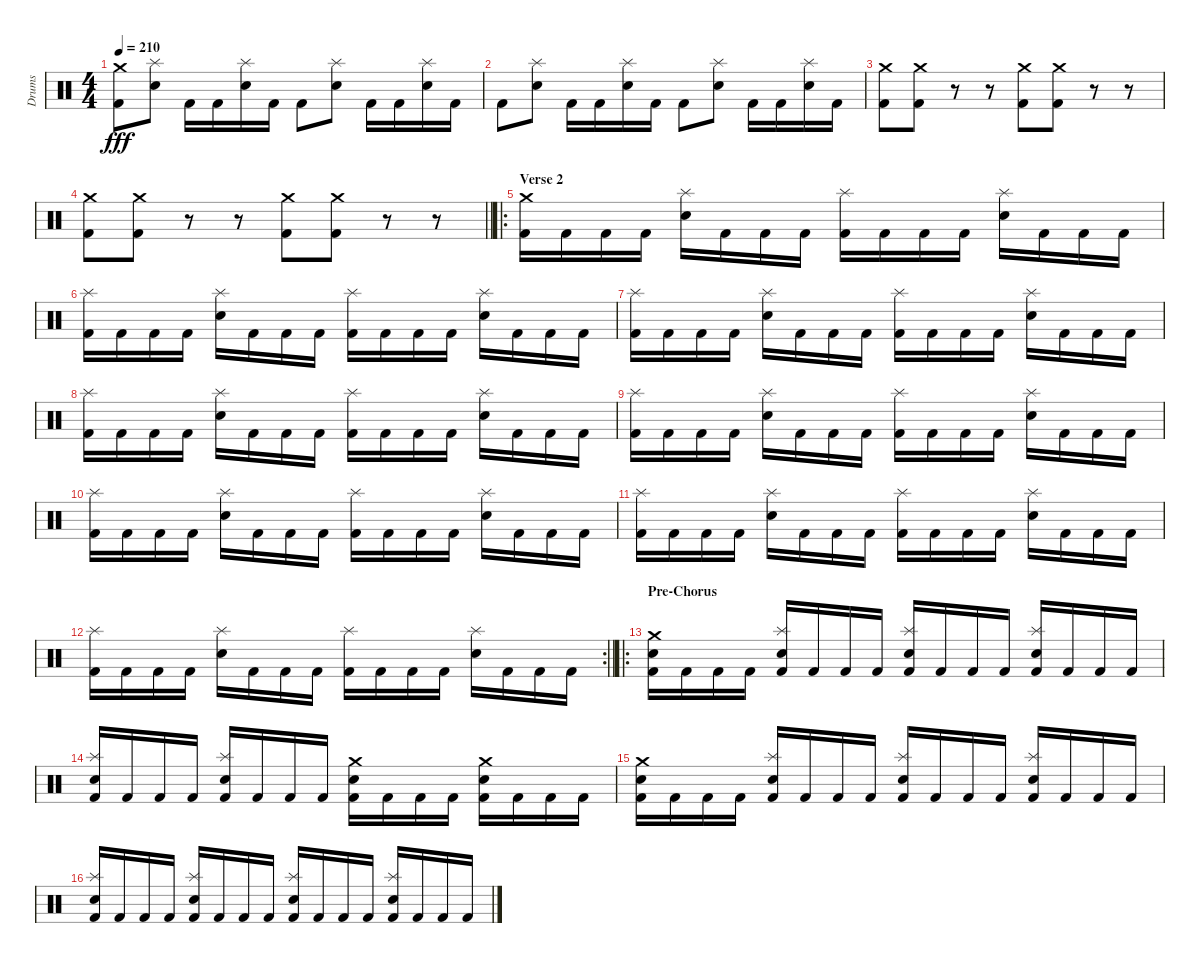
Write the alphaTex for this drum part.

\track ("Drums" "Drums") {instrument percussion}
\staff {score}
\articulation defaults
\ts (4 4)
\tempo 210
\clef neutral
\ks c
("Crash medium (hit)" "Kick (hit) 2").8{dy fff} ("Splash (hit)" "Electric Snare (hit)").8 "Kick (hit) 2".16 "Kick (hit) 2".16 ("Splash (hit)" "Electric Snare (hit)").16 "Kick (hit) 2".16 "Kick (hit) 2".8 ("Splash (hit)" "Electric Snare (hit)").8 "Kick (hit) 2".16 "Kick (hit) 2".16 ("Splash (hit)" "Electric Snare (hit)").16 "Kick (hit) 2".16 |
"Kick (hit) 2".8 ("Splash (hit)" "Electric Snare (hit)").8 "Kick (hit) 2".16 "Kick (hit) 2".16 ("Splash (hit)" "Electric Snare (hit)").16 "Kick (hit) 2".16 "Kick (hit) 2".8 ("Splash (hit)" "Electric Snare (hit)").8 "Kick (hit) 2".16 "Kick (hit) 2".16 ("Splash (hit)" "Electric Snare (hit)").16 "Kick (hit) 2".16 |
("Crash medium (hit)" "Kick (hit) 2").8 ("Crash medium (hit)" "Kick (hit) 2").8 r.8 r.8 ("Crash medium (hit)" "Kick (hit) 2").8 ("Crash medium (hit)" "Kick (hit) 2").8 r.8 r.8 |
\barLineRight lightlight
("Crash medium (hit)" "Kick (hit) 2").8 ("Crash medium (hit)" "Kick (hit) 2").8 r.8 r.8 ("Crash medium (hit)" "Kick (hit) 2").8 ("Crash medium (hit)" "Kick (hit) 2").8 r.8 r.8 |
\ro
\section ("" "Verse 2")
("Crash medium (hit)" "Kick (hit) 2").16 "Kick (hit) 2".16 "Kick (hit) 2".16 "Kick (hit) 2".16 ("Splash (hit)" "Electric Snare (hit)").16 "Kick (hit) 2".16 "Kick (hit) 2".16 "Kick (hit) 2".16 ("Splash (hit)" "Kick (hit) 2").16 "Kick (hit) 2".16 "Kick (hit) 2".16 "Kick (hit) 2".16 ("Splash (hit)" "Electric Snare (hit)").16 "Kick (hit) 2".16 "Kick (hit) 2".16 "Kick (hit) 2".16 |
("Splash (hit)" "Kick (hit) 2").16 "Kick (hit) 2".16 "Kick (hit) 2".16 "Kick (hit) 2".16 ("Splash (hit)" "Electric Snare (hit)").16 "Kick (hit) 2".16 "Kick (hit) 2".16 "Kick (hit) 2".16 ("Splash (hit)" "Kick (hit) 2").16 "Kick (hit) 2".16 "Kick (hit) 2".16 "Kick (hit) 2".16 ("Splash (hit)" "Electric Snare (hit)").16 "Kick (hit) 2".16 "Kick (hit) 2".16 "Kick (hit) 2".16 |
("Splash (hit)" "Kick (hit) 2").16 "Kick (hit) 2".16 "Kick (hit) 2".16 "Kick (hit) 2".16 ("Splash (hit)" "Electric Snare (hit)").16 "Kick (hit) 2".16 "Kick (hit) 2".16 "Kick (hit) 2".16 ("Splash (hit)" "Kick (hit) 2").16 "Kick (hit) 2".16 "Kick (hit) 2".16 "Kick (hit) 2".16 ("Splash (hit)" "Electric Snare (hit)").16 "Kick (hit) 2".16 "Kick (hit) 2".16 "Kick (hit) 2".16 |
("Splash (hit)" "Kick (hit) 2").16 "Kick (hit) 2".16 "Kick (hit) 2".16 "Kick (hit) 2".16 ("Splash (hit)" "Electric Snare (hit)").16 "Kick (hit) 2".16 "Kick (hit) 2".16 "Kick (hit) 2".16 ("Splash (hit)" "Kick (hit) 2").16 "Kick (hit) 2".16 "Kick (hit) 2".16 "Kick (hit) 2".16 ("Splash (hit)" "Electric Snare (hit)").16 "Kick (hit) 2".16 "Kick (hit) 2".16 "Kick (hit) 2".16 |
("Splash (hit)" "Kick (hit) 2").16 "Kick (hit) 2".16 "Kick (hit) 2".16 "Kick (hit) 2".16 ("Splash (hit)" "Electric Snare (hit)").16 "Kick (hit) 2".16 "Kick (hit) 2".16 "Kick (hit) 2".16 ("Splash (hit)" "Kick (hit) 2").16 "Kick (hit) 2".16 "Kick (hit) 2".16 "Kick (hit) 2".16 ("Splash (hit)" "Electric Snare (hit)").16 "Kick (hit) 2".16 "Kick (hit) 2".16 "Kick (hit) 2".16 |
("Splash (hit)" "Kick (hit) 2").16 "Kick (hit) 2".16 "Kick (hit) 2".16 "Kick (hit) 2".16 ("Splash (hit)" "Electric Snare (hit)").16 "Kick (hit) 2".16 "Kick (hit) 2".16 "Kick (hit) 2".16 ("Splash (hit)" "Kick (hit) 2").16 "Kick (hit) 2".16 "Kick (hit) 2".16 "Kick (hit) 2".16 ("Splash (hit)" "Electric Snare (hit)").16 "Kick (hit) 2".16 "Kick (hit) 2".16 "Kick (hit) 2".16 |
("Splash (hit)" "Kick (hit) 2").16 "Kick (hit) 2".16 "Kick (hit) 2".16 "Kick (hit) 2".16 ("Splash (hit)" "Electric Snare (hit)").16 "Kick (hit) 2".16 "Kick (hit) 2".16 "Kick (hit) 2".16 ("Splash (hit)" "Kick (hit) 2").16 "Kick (hit) 2".16 "Kick (hit) 2".16 "Kick (hit) 2".16 ("Splash (hit)" "Electric Snare (hit)").16 "Kick (hit) 2".16 "Kick (hit) 2".16 "Kick (hit) 2".16 |
\rc 2
\barLineRight lightlight
("Splash (hit)" "Kick (hit) 2").16 "Kick (hit) 2".16 "Kick (hit) 2".16 "Kick (hit) 2".16 ("Splash (hit)" "Electric Snare (hit)").16 "Kick (hit) 2".16 "Kick (hit) 2".16 "Kick (hit) 2".16 ("Splash (hit)" "Kick (hit) 2").16 "Kick (hit) 2".16 "Kick (hit) 2".16 "Kick (hit) 2".16 ("Splash (hit)" "Electric Snare (hit)").16 "Kick (hit) 2".16 "Kick (hit) 2".16 "Kick (hit) 2".16 |
\ro
\section ("" "Pre-Chorus")
("Crash medium (hit)" "Electric Snare (hit)" "Kick (hit) 2").16 "Kick (hit) 2".16 "Kick (hit) 2".16 "Kick (hit) 2".16 ("Splash (hit)" "Electric Snare (hit)" "Kick (hit) 2").16 "Kick (hit) 2".16 "Kick (hit) 2".16 "Kick (hit) 2".16 ("Splash (hit)" "Electric Snare (hit)" "Kick (hit) 2").16 "Kick (hit) 2".16 "Kick (hit) 2".16 "Kick (hit) 2".16 ("Splash (hit)" "Electric Snare (hit)" "Kick (hit) 2").16 "Kick (hit) 2".16 "Kick (hit) 2".16 "Kick (hit) 2".16 |
("Splash (hit)" "Electric Snare (hit)" "Kick (hit) 2").16 "Kick (hit) 2".16 "Kick (hit) 2".16 "Kick (hit) 2".16 ("Splash (hit)" "Electric Snare (hit)" "Kick (hit) 2").16 "Kick (hit) 2".16 "Kick (hit) 2".16 "Kick (hit) 2".16 ("Crash medium (hit)" "Electric Snare (hit)" "Kick (hit) 2").16 "Kick (hit) 2".16 "Kick (hit) 2".16 "Kick (hit) 2".16 ("Crash medium (hit)" "Electric Snare (hit)" "Kick (hit) 2").16 "Kick (hit) 2".16 "Kick (hit) 2".16 "Kick (hit) 2".16 |
("Crash medium (hit)" "Electric Snare (hit)" "Kick (hit) 2").16 "Kick (hit) 2".16 "Kick (hit) 2".16 "Kick (hit) 2".16 ("Splash (hit)" "Electric Snare (hit)" "Kick (hit) 2").16 "Kick (hit) 2".16 "Kick (hit) 2".16 "Kick (hit) 2".16 ("Splash (hit)" "Electric Snare (hit)" "Kick (hit) 2").16 "Kick (hit) 2".16 "Kick (hit) 2".16 "Kick (hit) 2".16 ("Splash (hit)" "Electric Snare (hit)" "Kick (hit) 2").16 "Kick (hit) 2".16 "Kick (hit) 2".16 "Kick (hit) 2".16 |
("Splash (hit)" "Electric Snare (hit)" "Kick (hit) 2").16 "Kick (hit) 2".16 "Kick (hit) 2".16 "Kick (hit) 2".16 ("Splash (hit)" "Electric Snare (hit)" "Kick (hit) 2").16 "Kick (hit) 2".16 "Kick (hit) 2".16 "Kick (hit) 2".16 ("Splash (hit)" "Electric Snare (hit)" "Kick (hit) 2").16 "Kick (hit) 2".16 "Kick (hit) 2".16 "Kick (hit) 2".16 ("Splash (hit)" "Electric Snare (hit)" "Kick (hit) 2").16 "Kick (hit) 2".16 "Kick (hit) 2".16 "Kick (hit) 2".16
